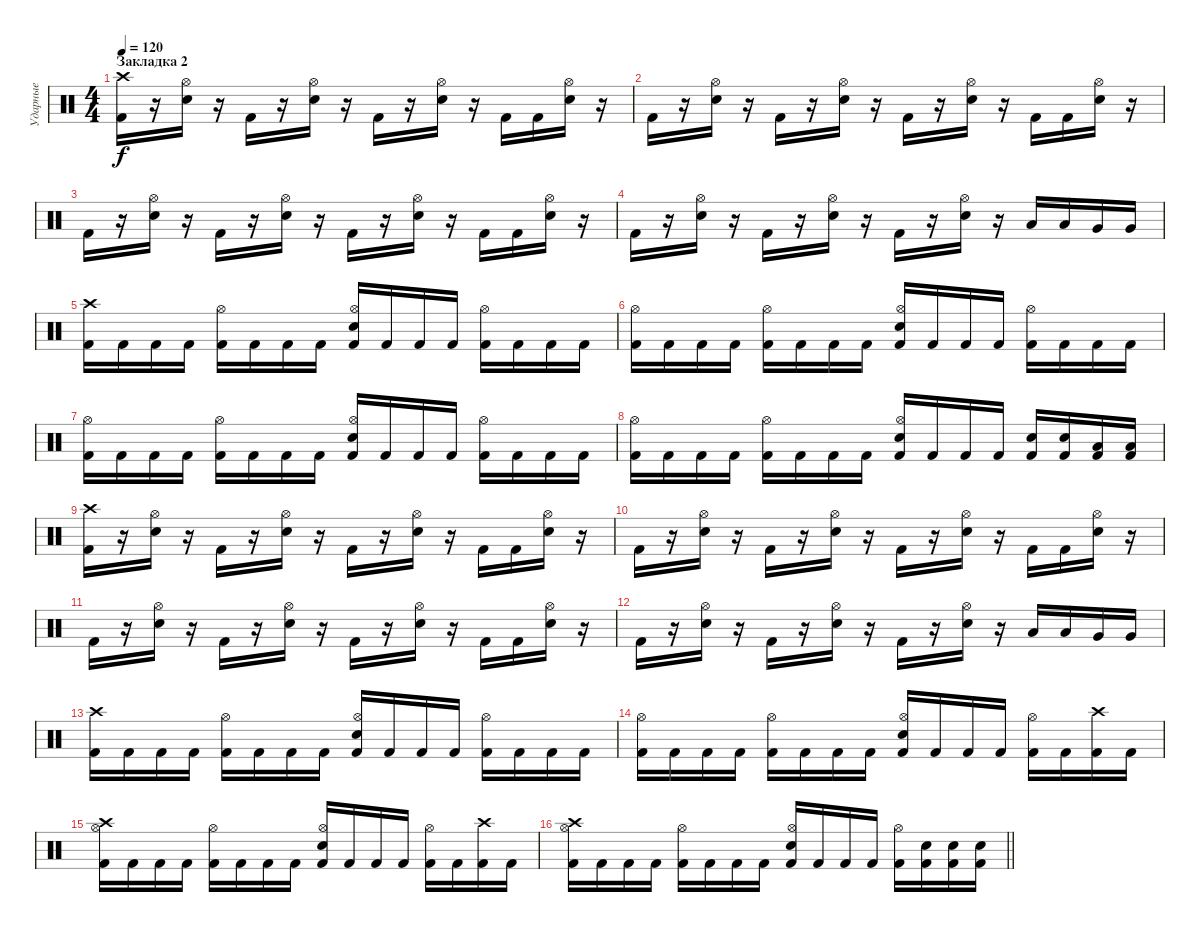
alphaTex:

\track ("Ударные" "Ударные") {instrument percussion}
\staff {score}
\articulation defaults
\ts (4 4)
\section ("" "Закладка 2")
\tempo 120
\clef neutral
\ks c
("Crash high (hit)" "Kick (hit) 2").16{dy f} r.16 ("Hi-Hat (open)" "Electric Snare (hit)").16 r.16 "Kick (hit) 2".16 r.16 ("Hi-Hat (open)" "Electric Snare (hit)").16 r.16 "Kick (hit) 2".16 r.16 ("Hi-Hat (open)" "Electric Snare (hit)").16 r.16 "Kick (hit) 2".16 "Kick (hit) 2".16 ("Hi-Hat (open)" "Electric Snare (hit)").16 r.16 |
"Kick (hit) 2".16 r.16 ("Hi-Hat (open)" "Electric Snare (hit)").16 r.16 "Kick (hit) 2".16 r.16 ("Hi-Hat (open)" "Electric Snare (hit)").16 r.16 "Kick (hit) 2".16 r.16 ("Hi-Hat (open)" "Electric Snare (hit)").16 r.16 "Kick (hit) 2".16 "Kick (hit) 2".16 ("Hi-Hat (open)" "Electric Snare (hit)").16 r.16 |
"Kick (hit) 2".16 r.16 ("Hi-Hat (open)" "Electric Snare (hit)").16 r.16 "Kick (hit) 2".16 r.16 ("Hi-Hat (open)" "Electric Snare (hit)").16 r.16 "Kick (hit) 2".16 r.16 ("Hi-Hat (open)" "Electric Snare (hit)").16 r.16 "Kick (hit) 2".16 "Kick (hit) 2".16 ("Hi-Hat (open)" "Electric Snare (hit)").16 r.16 |
"Kick (hit) 2".16 r.16 ("Hi-Hat (open)" "Electric Snare (hit)").16 r.16 "Kick (hit) 2".16 r.16 ("Hi-Hat (open)" "Electric Snare (hit)").16 r.16 "Kick (hit) 2".16 r.16 ("Hi-Hat (open)" "Electric Snare (hit)").16 r.16 "Low Tom (hit)".16 "Low Tom (hit)".16 "Very Low Tom (hit)".16 "Very Low Tom (hit)".16 |
("Crash high (hit)" "Kick (hit) 2").16 "Kick (hit) 2".16 "Kick (hit) 2".16 "Kick (hit) 2".16 ("Hi-Hat (open)" "Kick (hit) 2").16 "Kick (hit) 2".16 "Kick (hit) 2".16 "Kick (hit) 2".16 ("Hi-Hat (open)" "Electric Snare (hit)" "Kick (hit) 2").16 "Kick (hit) 2".16 "Kick (hit) 2".16 "Kick (hit) 2".16 ("Hi-Hat (open)" "Kick (hit) 2").16 "Kick (hit) 2".16 "Kick (hit) 2".16 "Kick (hit) 2".16 |
("Hi-Hat (open)" "Kick (hit) 2").16 "Kick (hit) 2".16 "Kick (hit) 2".16 "Kick (hit) 2".16 ("Hi-Hat (open)" "Kick (hit) 2").16 "Kick (hit) 2".16 "Kick (hit) 2".16 "Kick (hit) 2".16 ("Hi-Hat (open)" "Electric Snare (hit)" "Kick (hit) 2").16 "Kick (hit) 2".16 "Kick (hit) 2".16 "Kick (hit) 2".16 ("Hi-Hat (open)" "Kick (hit) 2").16 "Kick (hit) 2".16 "Kick (hit) 2".16 "Kick (hit) 2".16 |
("Hi-Hat (open)" "Kick (hit) 2").16 "Kick (hit) 2".16 "Kick (hit) 2".16 "Kick (hit) 2".16 ("Hi-Hat (open)" "Kick (hit) 2").16 "Kick (hit) 2".16 "Kick (hit) 2".16 "Kick (hit) 2".16 ("Hi-Hat (open)" "Electric Snare (hit)" "Kick (hit) 2").16 "Kick (hit) 2".16 "Kick (hit) 2".16 "Kick (hit) 2".16 ("Hi-Hat (open)" "Kick (hit) 2").16 "Kick (hit) 2".16 "Kick (hit) 2".16 "Kick (hit) 2".16 |
("Hi-Hat (open)" "Kick (hit) 2").16 "Kick (hit) 2".16 "Kick (hit) 2".16 "Kick (hit) 2".16 ("Hi-Hat (open)" "Kick (hit) 2").16 "Kick (hit) 2".16 "Kick (hit) 2".16 "Kick (hit) 2".16 ("Hi-Hat (open)" "Electric Snare (hit)" "Kick (hit) 2").16 "Kick (hit) 2".16 "Kick (hit) 2".16 "Kick (hit) 2".16 ("Electric Snare (hit)" "Kick (hit) 2").16 ("Electric Snare (hit)" "Kick (hit) 2").16 ("Low Tom (hit)" "Kick (hit) 2").16 ("Low Tom (hit)" "Kick (hit) 2").16 |
("Crash high (hit)" "Kick (hit) 2").16 r.16 ("Hi-Hat (open)" "Electric Snare (hit)").16 r.16 "Kick (hit) 2".16 r.16 ("Hi-Hat (open)" "Electric Snare (hit)").16 r.16 "Kick (hit) 2".16 r.16 ("Hi-Hat (open)" "Electric Snare (hit)").16 r.16 "Kick (hit) 2".16 "Kick (hit) 2".16 ("Hi-Hat (open)" "Electric Snare (hit)").16 r.16 |
"Kick (hit) 2".16 r.16 ("Hi-Hat (open)" "Electric Snare (hit)").16 r.16 "Kick (hit) 2".16 r.16 ("Hi-Hat (open)" "Electric Snare (hit)").16 r.16 "Kick (hit) 2".16 r.16 ("Hi-Hat (open)" "Electric Snare (hit)").16 r.16 "Kick (hit) 2".16 "Kick (hit) 2".16 ("Hi-Hat (open)" "Electric Snare (hit)").16 r.16 |
"Kick (hit) 2".16 r.16 ("Hi-Hat (open)" "Electric Snare (hit)").16 r.16 "Kick (hit) 2".16 r.16 ("Hi-Hat (open)" "Electric Snare (hit)").16 r.16 "Kick (hit) 2".16 r.16 ("Hi-Hat (open)" "Electric Snare (hit)").16 r.16 "Kick (hit) 2".16 "Kick (hit) 2".16 ("Hi-Hat (open)" "Electric Snare (hit)").16 r.16 |
"Kick (hit) 2".16 r.16 ("Hi-Hat (open)" "Electric Snare (hit)").16 r.16 "Kick (hit) 2".16 r.16 ("Hi-Hat (open)" "Electric Snare (hit)").16 r.16 "Kick (hit) 2".16 r.16 ("Hi-Hat (open)" "Electric Snare (hit)").16 r.16 "Low Tom (hit)".16 "Low Tom (hit)".16 "Very Low Tom (hit)".16 "Very Low Tom (hit)".16 |
("Crash high (hit)" "Kick (hit) 2").16 "Kick (hit) 2".16 "Kick (hit) 2".16 "Kick (hit) 2".16 ("Hi-Hat (open)" "Kick (hit) 2").16 "Kick (hit) 2".16 "Kick (hit) 2".16 "Kick (hit) 2".16 ("Hi-Hat (open)" "Electric Snare (hit)" "Kick (hit) 2").16 "Kick (hit) 2".16 "Kick (hit) 2".16 "Kick (hit) 2".16 ("Hi-Hat (open)" "Kick (hit) 2").16 "Kick (hit) 2".16 "Kick (hit) 2".16 "Kick (hit) 2".16 |
("Hi-Hat (open)" "Kick (hit) 2").16 "Kick (hit) 2".16 "Kick (hit) 2".16 "Kick (hit) 2".16 ("Hi-Hat (open)" "Kick (hit) 2").16 "Kick (hit) 2".16 "Kick (hit) 2".16 "Kick (hit) 2".16 ("Hi-Hat (open)" "Electric Snare (hit)" "Kick (hit) 2").16 "Kick (hit) 2".16 "Kick (hit) 2".16 "Kick (hit) 2".16 ("Hi-Hat (open)" "Kick (hit) 2").16 "Kick (hit) 2".16 ("Crash high (hit)" "Kick (hit) 2").16 "Kick (hit) 2".16 |
("Crash high (hit)" "Hi-Hat (open)" "Kick (hit) 2").16 "Kick (hit) 2".16 "Kick (hit) 2".16 "Kick (hit) 2".16 ("Hi-Hat (open)" "Kick (hit) 2").16 "Kick (hit) 2".16 "Kick (hit) 2".16 "Kick (hit) 2".16 ("Hi-Hat (open)" "Electric Snare (hit)" "Kick (hit) 2").16 "Kick (hit) 2".16 "Kick (hit) 2".16 "Kick (hit) 2".16 ("Hi-Hat (open)" "Kick (hit) 2").16 "Kick (hit) 2".16 ("Crash high (hit)" "Kick (hit) 2").16 "Kick (hit) 2".16 |
\barLineRight lightlight
("Crash high (hit)" "Hi-Hat (open)" "Kick (hit) 2").16 "Kick (hit) 2".16 "Kick (hit) 2".16 "Kick (hit) 2".16 ("Hi-Hat (open)" "Kick (hit) 2").16 "Kick (hit) 2".16 "Kick (hit) 2".16 "Kick (hit) 2".16 ("Hi-Hat (open)" "Electric Snare (hit)" "Kick (hit) 2").16 "Kick (hit) 2".16 "Kick (hit) 2".16 "Kick (hit) 2".16 ("Hi-Hat (open)" "Kick (hit) 2").16 ("Electric Snare (hit)" "Kick (hit) 2").16 ("Electric Snare (hit)" "Kick (hit) 2").16 ("Electric Snare (hit)" "Kick (hit) 2").16
